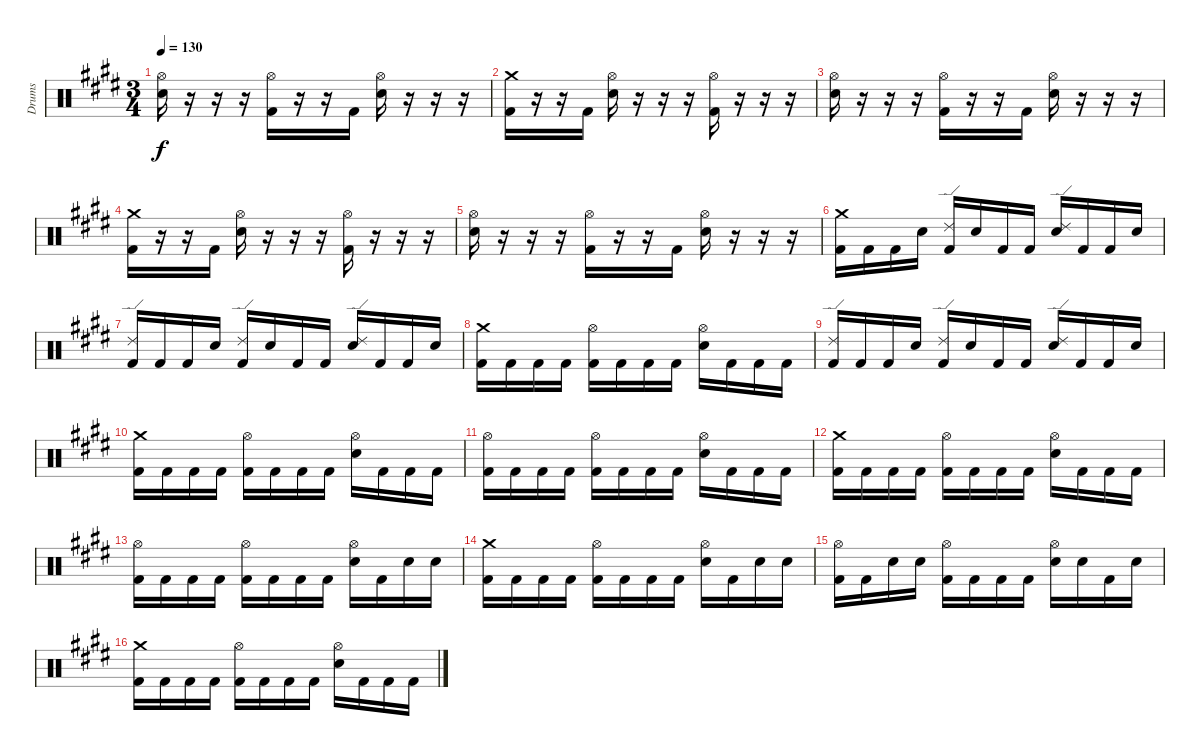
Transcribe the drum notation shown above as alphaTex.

\track ("Drums" "Drums") {instrument percussion}
\staff {score}
\articulation defaults
\ts (3 4)
\tempo 130
\clef neutral
\ks e
("Electric Snare (hit)" "Hi-Hat (open)").16{dy f} r.16 r.16 r.16 ("Kick (hit) 2" "Hi-Hat (open)").16 r.16 r.16 "Kick (hit) 2".16 ("Electric Snare (hit)" "Hi-Hat (open)").16 r.16 r.16 r.16 |
("Kick (hit) 2" "Crash medium (hit)").16 r.16 r.16 "Kick (hit) 2".16 ("Electric Snare (hit)" "Hi-Hat (open)").16 r.16 r.16 r.16 ("Kick (hit) 2" "Hi-Hat (open)").16 r.16 r.16 r.16 |
("Electric Snare (hit)" "Hi-Hat (open)").16 r.16 r.16 r.16 ("Kick (hit) 2" "Hi-Hat (open)").16 r.16 r.16 "Kick (hit) 2".16 ("Electric Snare (hit)" "Hi-Hat (open)").16 r.16 r.16 r.16 |
("Kick (hit) 2" "Crash medium (hit)").16 r.16 r.16 "Kick (hit) 2".16 ("Electric Snare (hit)" "Hi-Hat (open)").16 r.16 r.16 r.16 ("Kick (hit) 2" "Hi-Hat (open)").16 r.16 r.16 r.16 |
("Electric Snare (hit)" "Hi-Hat (open)").16 r.16 r.16 r.16 ("Kick (hit) 2" "Hi-Hat (open)").16 r.16 r.16 "Kick (hit) 2".16 ("Electric Snare (hit)" "Hi-Hat (open)").16 r.16 r.16 r.16 |
("Kick (hit) 2" "Crash medium (hit)").16 "Kick (hit) 2".16 "Kick (hit) 2".16 "Electric Snare (hit)".16 ("Kick (hit) 2" "Ride (edge) 2").16 "Electric Snare (hit)".16 "Kick (hit) 2".16 "Kick (hit) 2".16 ("Electric Snare (hit)" "Ride (edge) 2").16 "Kick (hit) 2".16 "Kick (hit) 2".16 "Electric Snare (hit)".16 |
("Kick (hit) 2" "Ride (edge) 2").16 "Kick (hit) 2".16 "Kick (hit) 2".16 "Electric Snare (hit)".16 ("Kick (hit) 2" "Ride (edge) 2").16 "Electric Snare (hit)".16 "Kick (hit) 2".16 "Kick (hit) 2".16 ("Electric Snare (hit)" "Ride (edge) 2").16 "Kick (hit) 2".16 "Kick (hit) 2".16 "Electric Snare (hit)".16 |
("Kick (hit) 2" "Crash medium (hit)").16 "Kick (hit) 2".16 "Kick (hit) 2".16 "Kick (hit) 2".16 ("Kick (hit) 2" "Hi-Hat (open)").16 "Kick (hit) 2".16 "Kick (hit) 2".16 "Kick (hit) 2".16 ("Electric Snare (hit)" "Hi-Hat (open)").16 "Kick (hit) 2".16 "Kick (hit) 2".16 "Kick (hit) 2".16 |
("Kick (hit) 2" "Ride (edge) 2").16 "Kick (hit) 2".16 "Kick (hit) 2".16 "Electric Snare (hit)".16 ("Kick (hit) 2" "Ride (edge) 2").16 "Electric Snare (hit)".16 "Kick (hit) 2".16 "Kick (hit) 2".16 ("Electric Snare (hit)" "Ride (edge) 2").16 "Kick (hit) 2".16 "Kick (hit) 2".16 "Electric Snare (hit)".16 |
("Kick (hit) 2" "Crash medium (hit)").16 "Kick (hit) 2".16 "Kick (hit) 2".16 "Kick (hit) 2".16 ("Kick (hit) 2" "Hi-Hat (open)").16 "Kick (hit) 2".16 "Kick (hit) 2".16 "Kick (hit) 2".16 ("Electric Snare (hit)" "Hi-Hat (open)").16 "Kick (hit) 2".16 "Kick (hit) 2".16 "Kick (hit) 2".16 |
("Kick (hit) 2" "Hi-Hat (open)").16 "Kick (hit) 2".16 "Kick (hit) 2".16 "Kick (hit) 2".16 ("Kick (hit) 2" "Hi-Hat (open)").16 "Kick (hit) 2".16 "Kick (hit) 2".16 "Kick (hit) 2".16 ("Electric Snare (hit)" "Hi-Hat (open)").16 "Kick (hit) 2".16 "Kick (hit) 2".16 "Kick (hit) 2".16 |
("Kick (hit) 2" "Crash medium (hit)").16 "Kick (hit) 2".16 "Kick (hit) 2".16 "Kick (hit) 2".16 ("Kick (hit) 2" "Hi-Hat (open)").16 "Kick (hit) 2".16 "Kick (hit) 2".16 "Kick (hit) 2".16 ("Electric Snare (hit)" "Hi-Hat (open)").16 "Kick (hit) 2".16 "Kick (hit) 2".16 "Kick (hit) 2".16 |
("Kick (hit) 2" "Hi-Hat (open)").16 "Kick (hit) 2".16 "Kick (hit) 2".16 "Kick (hit) 2".16 ("Kick (hit) 2" "Hi-Hat (open)").16 "Kick (hit) 2".16 "Kick (hit) 2".16 "Kick (hit) 2".16 ("Electric Snare (hit)" "Hi-Hat (open)").16 "Kick (hit) 2".16 "Electric Snare (hit)".16 "Electric Snare (hit)".16 |
("Kick (hit) 2" "Crash medium (hit)").16 "Kick (hit) 2".16 "Kick (hit) 2".16 "Kick (hit) 2".16 ("Kick (hit) 2" "Hi-Hat (open)").16 "Kick (hit) 2".16 "Kick (hit) 2".16 "Kick (hit) 2".16 ("Electric Snare (hit)" "Hi-Hat (open)").16 "Kick (hit) 2".16 "Electric Snare (hit)".16 "Electric Snare (hit)".16 |
("Kick (hit) 2" "Hi-Hat (open)").16 "Kick (hit) 2".16 "Electric Snare (hit)".16 "Electric Snare (hit)".16 ("Kick (hit) 2" "Hi-Hat (open)").16 "Kick (hit) 2".16 "Kick (hit) 2".16 "Kick (hit) 2".16 ("Electric Snare (hit)" "Hi-Hat (open)").16 "Electric Snare (hit)".16 "Kick (hit) 2".16 "Electric Snare (hit)".16 |
("Kick (hit) 2" "Crash medium (hit)").16 "Kick (hit) 2".16 "Kick (hit) 2".16 "Kick (hit) 2".16 ("Kick (hit) 2" "Hi-Hat (open)").16 "Kick (hit) 2".16 "Kick (hit) 2".16 "Kick (hit) 2".16 ("Electric Snare (hit)" "Hi-Hat (open)").16 "Kick (hit) 2".16 "Kick (hit) 2".16 "Kick (hit) 2".16
